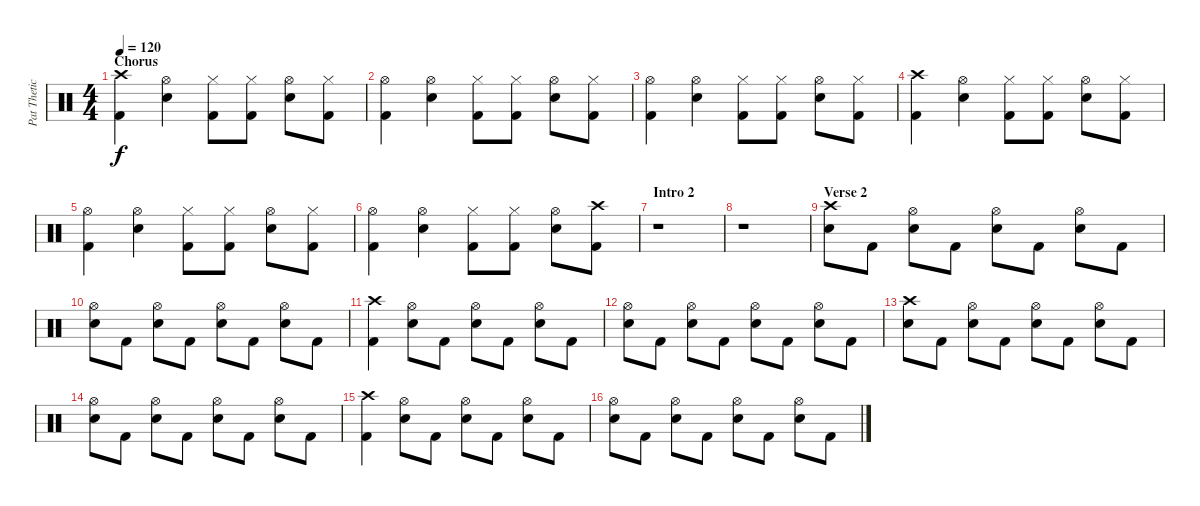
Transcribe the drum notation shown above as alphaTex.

\track ("Pat Thetic (Drums)" "Pat Thetic") {instrument percussion}
\staff {score}
\articulation defaults
\ts (4 4)
\section ("" "Chorus")
\tempo 120
\clef neutral
\ks c
("Crash high (hit)" "Kick (hit) 2").4{dy f} ("Hi-Hat (open)" "Electric Snare (hit)").4 ("Hi-Hat (closed)" "Kick (hit) 2").8 ("Hi-Hat (closed)" "Kick (hit) 2").8 ("Hi-Hat (open)" "Electric Snare (hit)").8 ("Hi-Hat (closed)" "Kick (hit) 2").8 |
("Hi-Hat (open)" "Kick (hit) 2").4 ("Hi-Hat (open)" "Electric Snare (hit)").4 ("Hi-Hat (closed)" "Kick (hit) 2").8 ("Hi-Hat (closed)" "Kick (hit) 2").8 ("Hi-Hat (open)" "Electric Snare (hit)").8 ("Hi-Hat (closed)" "Kick (hit) 2").8 |
("Hi-Hat (open)" "Kick (hit) 2").4 ("Hi-Hat (open)" "Electric Snare (hit)").4 ("Hi-Hat (closed)" "Kick (hit) 2").8 ("Hi-Hat (closed)" "Kick (hit) 2").8 ("Hi-Hat (open)" "Electric Snare (hit)").8 ("Hi-Hat (closed)" "Kick (hit) 2").8 |
("Crash high (hit)" "Kick (hit) 2").4 ("Hi-Hat (open)" "Electric Snare (hit)").4 ("Hi-Hat (closed)" "Kick (hit) 2").8 ("Hi-Hat (closed)" "Kick (hit) 2").8 ("Hi-Hat (open)" "Electric Snare (hit)").8 ("Hi-Hat (closed)" "Kick (hit) 2").8 |
("Hi-Hat (open)" "Kick (hit) 2").4 ("Hi-Hat (open)" "Electric Snare (hit)").4 ("Hi-Hat (closed)" "Kick (hit) 2").8 ("Hi-Hat (closed)" "Kick (hit) 2").8 ("Hi-Hat (open)" "Electric Snare (hit)").8 ("Hi-Hat (closed)" "Kick (hit) 2").8 |
("Hi-Hat (open)" "Kick (hit) 2").4 ("Hi-Hat (open)" "Electric Snare (hit)").4 ("Hi-Hat (closed)" "Kick (hit) 2").8 ("Hi-Hat (closed)" "Kick (hit) 2").8 ("Hi-Hat (open)" "Electric Snare (hit)").8 ("Crash high (hit)" "Kick (hit) 2").8 |
\section ("" "Intro 2")
r.1 |
r.1 |
\section ("" "Verse 2")
("Crash high (hit)" "Electric Snare (hit)").8 "Kick (hit) 2".8 ("Hi-Hat (open)" "Electric Snare (hit)").8 "Kick (hit) 2".8 ("Hi-Hat (open)" "Electric Snare (hit)").8 "Kick (hit) 2".8 ("Hi-Hat (open)" "Electric Snare (hit)").8 "Kick (hit) 2".8 |
("Hi-Hat (open)" "Electric Snare (hit)").8 "Kick (hit) 2".8 ("Hi-Hat (open)" "Electric Snare (hit)").8 "Kick (hit) 2".8 ("Hi-Hat (open)" "Electric Snare (hit)").8 "Kick (hit) 2".8 ("Hi-Hat (open)" "Electric Snare (hit)").8 "Kick (hit) 2".8 |
("Crash high (hit)" "Kick (hit) 2").4 ("Hi-Hat (open)" "Electric Snare (hit)").8 "Kick (hit) 2".8 ("Hi-Hat (open)" "Electric Snare (hit)").8 "Kick (hit) 2".8 ("Hi-Hat (open)" "Electric Snare (hit)").8 "Kick (hit) 2".8 |
("Hi-Hat (open)" "Electric Snare (hit)").8 "Kick (hit) 2".8 ("Hi-Hat (open)" "Electric Snare (hit)").8 "Kick (hit) 2".8 ("Hi-Hat (open)" "Electric Snare (hit)").8 "Kick (hit) 2".8 ("Hi-Hat (open)" "Electric Snare (hit)").8 "Kick (hit) 2".8 |
("Crash high (hit)" "Electric Snare (hit)").8 "Kick (hit) 2".8 ("Hi-Hat (open)" "Electric Snare (hit)").8 "Kick (hit) 2".8 ("Hi-Hat (open)" "Electric Snare (hit)").8 "Kick (hit) 2".8 ("Hi-Hat (open)" "Electric Snare (hit)").8 "Kick (hit) 2".8 |
("Hi-Hat (open)" "Electric Snare (hit)").8 "Kick (hit) 2".8 ("Hi-Hat (open)" "Electric Snare (hit)").8 "Kick (hit) 2".8 ("Hi-Hat (open)" "Electric Snare (hit)").8 "Kick (hit) 2".8 ("Hi-Hat (open)" "Electric Snare (hit)").8 "Kick (hit) 2".8 |
("Crash high (hit)" "Kick (hit) 2").4 ("Hi-Hat (open)" "Electric Snare (hit)").8 "Kick (hit) 2".8 ("Hi-Hat (open)" "Electric Snare (hit)").8 "Kick (hit) 2".8 ("Hi-Hat (open)" "Electric Snare (hit)").8 "Kick (hit) 2".8 |
("Hi-Hat (open)" "Electric Snare (hit)").8 "Kick (hit) 2".8 ("Hi-Hat (open)" "Electric Snare (hit)").8 "Kick (hit) 2".8 ("Hi-Hat (open)" "Electric Snare (hit)").8 "Kick (hit) 2".8 ("Hi-Hat (open)" "Electric Snare (hit)").8 "Kick (hit) 2".8
